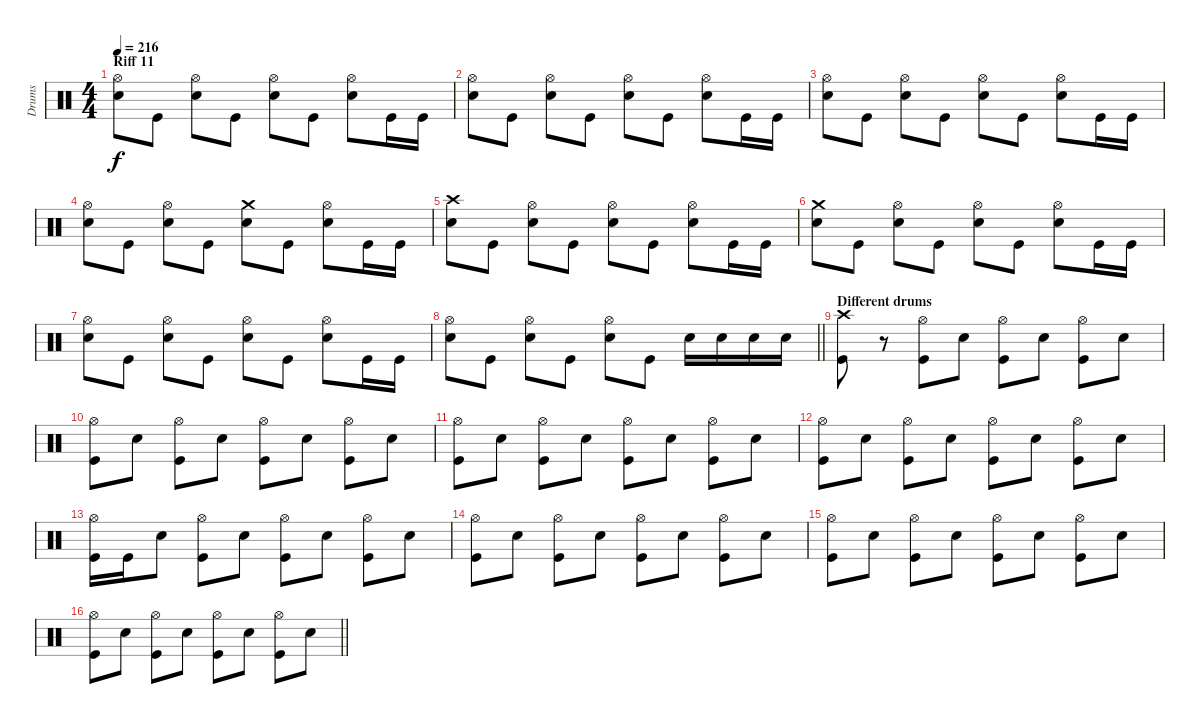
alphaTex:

\track ("Drums" "Drums") {instrument percussion}
\staff {score}
\articulation defaults
\ts (4 4)
\section ("" "Riff 11")
\tempo 216
\clef neutral
\ks c
("Hi-Hat (open)" "Snare (hit) 2").8{dy f} "Kick (hit)".8 ("Hi-Hat (open)" "Snare (hit) 2").8 "Kick (hit)".8 ("Hi-Hat (open)" "Snare (hit) 2").8 "Kick (hit)".8 ("Hi-Hat (open)" "Snare (hit) 2").8 "Kick (hit)".16 "Kick (hit)".16 |
("Hi-Hat (open)" "Snare (hit) 2").8 "Kick (hit)".8 ("Hi-Hat (open)" "Snare (hit) 2").8 "Kick (hit)".8 ("Hi-Hat (open)" "Snare (hit) 2").8 "Kick (hit)".8 ("Hi-Hat (open)" "Snare (hit) 2").8 "Kick (hit)".16 "Kick (hit)".16 |
("Hi-Hat (open)" "Snare (hit) 2").8 "Kick (hit)".8 ("Hi-Hat (open)" "Snare (hit) 2").8 "Kick (hit)".8 ("Hi-Hat (open)" "Snare (hit) 2").8 "Kick (hit)".8 ("Hi-Hat (open)" "Snare (hit) 2").8 "Kick (hit)".16 "Kick (hit)".16 |
("Hi-Hat (open)" "Snare (hit) 2").8 "Kick (hit)".8 ("Hi-Hat (open)" "Snare (hit) 2").8 "Kick (hit)".8 ("Crash medium (hit)" "Snare (hit) 2").8 "Kick (hit)".8 ("Hi-Hat (open)" "Snare (hit) 2").8 "Kick (hit)".16 "Kick (hit)".16 |
("Crash high (hit)" "Snare (hit) 2").8 "Kick (hit)".8 ("Hi-Hat (open)" "Snare (hit) 2").8 "Kick (hit)".8 ("Hi-Hat (open)" "Snare (hit) 2").8 "Kick (hit)".8 ("Hi-Hat (open)" "Snare (hit) 2").8 "Kick (hit)".16 "Kick (hit)".16 |
("Crash medium (hit)" "Snare (hit) 2").8 "Kick (hit)".8 ("Hi-Hat (open)" "Snare (hit) 2").8 "Kick (hit)".8 ("Hi-Hat (open)" "Snare (hit) 2").8 "Kick (hit)".8 ("Hi-Hat (open)" "Snare (hit) 2").8 "Kick (hit)".16 "Kick (hit)".16 |
("Hi-Hat (open)" "Snare (hit) 2").8 "Kick (hit)".8 ("Hi-Hat (open)" "Snare (hit) 2").8 "Kick (hit)".8 ("Hi-Hat (open)" "Snare (hit) 2").8 "Kick (hit)".8 ("Hi-Hat (open)" "Snare (hit) 2").8 "Kick (hit)".16 "Kick (hit)".16 |
\barLineRight lightlight
("Hi-Hat (open)" "Snare (hit) 2").8 "Kick (hit)".8 ("Hi-Hat (open)" "Snare (hit) 2").8 "Kick (hit)".8 ("Hi-Hat (open)" "Snare (hit) 2").8 "Kick (hit)".8 "Snare (hit) 2".16 "Snare (hit) 2".16 "Snare (hit) 2".16 "Snare (hit) 2".16 |
\section ("" "Different drums")
("Crash high (hit)" "Kick (hit)").8 r.8 ("Hi-Hat (open)" "Kick (hit)").8 "Snare (hit) 2".8 ("Hi-Hat (open)" "Kick (hit)").8 "Snare (hit) 2".8 ("Hi-Hat (open)" "Kick (hit)").8 "Snare (hit) 2".8 |
("Hi-Hat (open)" "Kick (hit)").8 "Snare (hit) 2".8 ("Hi-Hat (open)" "Kick (hit)").8 "Snare (hit) 2".8 ("Hi-Hat (open)" "Kick (hit)").8 "Snare (hit) 2".8 ("Hi-Hat (open)" "Kick (hit)").8 "Snare (hit) 2".8 |
("Hi-Hat (open)" "Kick (hit)").8 "Snare (hit) 2".8 ("Hi-Hat (open)" "Kick (hit)").8 "Snare (hit) 2".8 ("Hi-Hat (open)" "Kick (hit)").8 "Snare (hit) 2".8 ("Hi-Hat (open)" "Kick (hit)").8 "Snare (hit) 2".8 |
("Hi-Hat (open)" "Kick (hit)").8 "Snare (hit) 2".8 ("Hi-Hat (open)" "Kick (hit)").8 "Snare (hit) 2".8 ("Hi-Hat (open)" "Kick (hit)").8 "Snare (hit) 2".8 ("Hi-Hat (open)" "Kick (hit)").8 "Snare (hit) 2".8 |
("Hi-Hat (open)" "Kick (hit)").16 "Kick (hit)".16 "Snare (hit) 2".8 ("Hi-Hat (open)" "Kick (hit)").8 "Snare (hit) 2".8 ("Hi-Hat (open)" "Kick (hit)").8 "Snare (hit) 2".8 ("Hi-Hat (open)" "Kick (hit)").8 "Snare (hit) 2".8 |
("Hi-Hat (open)" "Kick (hit)").8 "Snare (hit) 2".8 ("Hi-Hat (open)" "Kick (hit)").8 "Snare (hit) 2".8 ("Hi-Hat (open)" "Kick (hit)").8 "Snare (hit) 2".8 ("Hi-Hat (open)" "Kick (hit)").8 "Snare (hit) 2".8 |
("Hi-Hat (open)" "Kick (hit)").8 "Snare (hit) 2".8 ("Hi-Hat (open)" "Kick (hit)").8 "Snare (hit) 2".8 ("Hi-Hat (open)" "Kick (hit)").8 "Snare (hit) 2".8 ("Hi-Hat (open)" "Kick (hit)").8 "Snare (hit) 2".8 |
\barLineRight lightlight
("Hi-Hat (open)" "Kick (hit)").8 "Snare (hit) 2".8 ("Hi-Hat (open)" "Kick (hit)").8 "Snare (hit) 2".8 ("Hi-Hat (open)" "Kick (hit)").8 "Snare (hit) 2".8 ("Hi-Hat (open)" "Kick (hit)").8 "Snare (hit) 2".8
